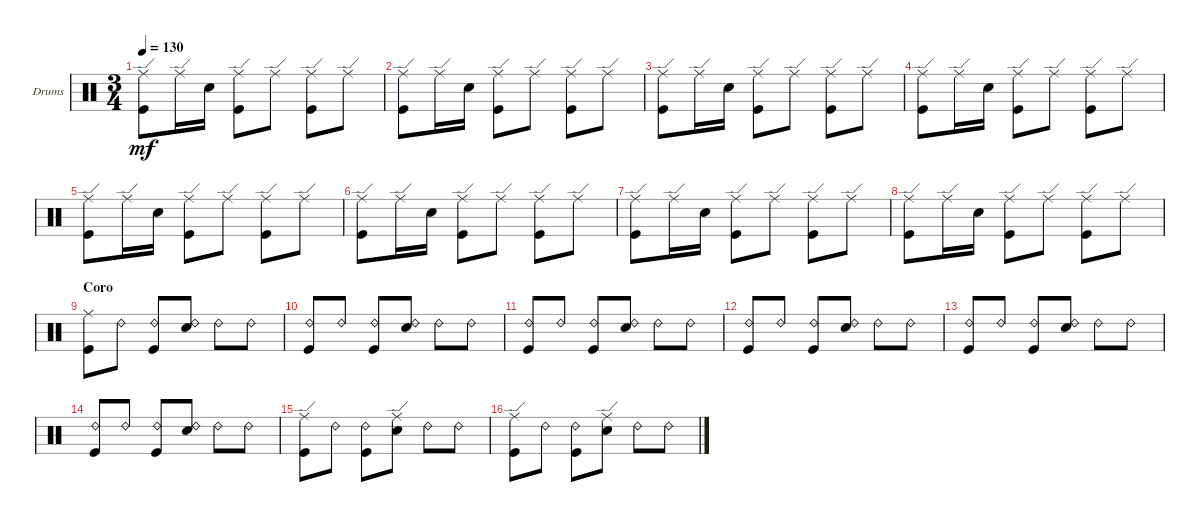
\defaultSystemsLayout 4
\bracketExtendMode groupsimilarinstruments
\firstSystemTrackNameOrientation horizontal
\otherSystemsTrackNameOrientation horizontal
\track ("Drumkit" "Drums") {instrument percussion}
\staff {score}
\articulation defaults
\ts (3 4)
\tempo 130
\clef neutral
\ks c
("Kick (hit)" "Ride (edge)").8{dy mf} "Ride (edge)".16 "Snare (hit) 2".16 ("Ride (edge)" "Kick (hit)").8 "Ride (edge)".8 ("Kick (hit)" "Ride (edge)").8 "Ride (edge)".8 |
("Kick (hit)" "Ride (edge)").8 "Ride (edge)".16 "Snare (hit) 2".16 ("Ride (edge)" "Kick (hit)").8 "Ride (edge)".8 ("Kick (hit)" "Ride (edge)").8 "Ride (edge)".8 |
("Kick (hit)" "Ride (edge)").8 "Ride (edge)".16 "Snare (hit) 2".16 ("Ride (edge)" "Kick (hit)").8 "Ride (edge)".8 ("Kick (hit)" "Ride (edge)").8 "Ride (edge)".8 |
("Kick (hit)" "Ride (edge)").8 "Ride (edge)".16 "Snare (hit) 2".16 ("Ride (edge)" "Kick (hit)").8 "Ride (edge)".8 ("Kick (hit)" "Ride (edge)").8 "Ride (edge)".8 |
("Kick (hit)" "Ride (edge)").8 "Ride (edge)".16 "Snare (hit) 2".16 ("Ride (edge)" "Kick (hit)").8 "Ride (edge)".8 ("Kick (hit)" "Ride (edge)").8 "Ride (edge)".8 |
("Kick (hit)" "Ride (edge)").8 "Ride (edge)".16 "Snare (hit) 2".16 ("Ride (edge)" "Kick (hit)").8 "Ride (edge)".8 ("Kick (hit)" "Ride (edge)").8 "Ride (edge)".8 |
("Kick (hit)" "Ride (edge)").8 "Ride (edge)".16 "Snare (hit) 2".16 ("Ride (edge)" "Kick (hit)").8 "Ride (edge)".8 ("Kick (hit)" "Ride (edge)").8 "Ride (edge)".8 |
("Kick (hit)" "Ride (edge)").8 "Ride (edge)".16 "Snare (hit) 2".16 ("Ride (edge)" "Kick (hit)").8 "Ride (edge)".8 ("Kick (hit)" "Ride (edge)").8 "Ride (edge)".8 |
\section ("" "Coro")
("Kick (hit)" "Ride (middle)").8 "Ride (bell) 2".8 ("Kick (hit)" "Ride (bell) 2").8 ("Snare (hit) 2" "Ride (bell) 2").8 "Ride (bell) 2".8 "Ride (bell) 2".8 |
("Kick (hit)" "Ride (bell) 2").8 "Ride (bell) 2".8 ("Kick (hit)" "Ride (bell) 2").8 ("Snare (hit) 2" "Ride (bell) 2").8 "Ride (bell) 2".8 "Ride (bell) 2".8 |
("Kick (hit)" "Ride (bell) 2").8 "Ride (bell) 2".8 ("Kick (hit)" "Ride (bell) 2").8 ("Snare (hit) 2" "Ride (bell) 2").8 "Ride (bell) 2".8 "Ride (bell) 2".8 |
("Kick (hit)" "Ride (bell) 2").8 "Ride (bell) 2".8 ("Kick (hit)" "Ride (bell) 2").8 ("Snare (hit) 2" "Ride (bell) 2").8 "Ride (bell) 2".8 "Ride (bell) 2".8 |
("Kick (hit)" "Ride (bell) 2").8 "Ride (bell) 2".8 ("Kick (hit)" "Ride (bell) 2").8 ("Snare (hit) 2" "Ride (bell) 2").8 "Ride (bell) 2".8 "Ride (bell) 2".8 |
("Kick (hit)" "Ride (bell) 2").8 "Ride (bell) 2".8 ("Kick (hit)" "Ride (bell) 2").8 ("Snare (hit) 2" "Ride (bell) 2").8 "Ride (bell) 2".8 "Ride (bell) 2".8 |
("Ride (edge)" "Kick (hit)").8 "Ride (bell) 2".8 ("Ride (bell) 2" "Kick (hit)").8 ("Ride (edge)" "Snare (hit) 2").8 "Ride (bell) 2".8 "Ride (bell) 2".8 |
("Ride (edge)" "Kick (hit)").8 "Ride (bell) 2".8 ("Ride (bell) 2" "Kick (hit)").8 ("Ride (edge)" "Snare (hit) 2").8 "Ride (bell) 2".8 "Ride (bell) 2".8
